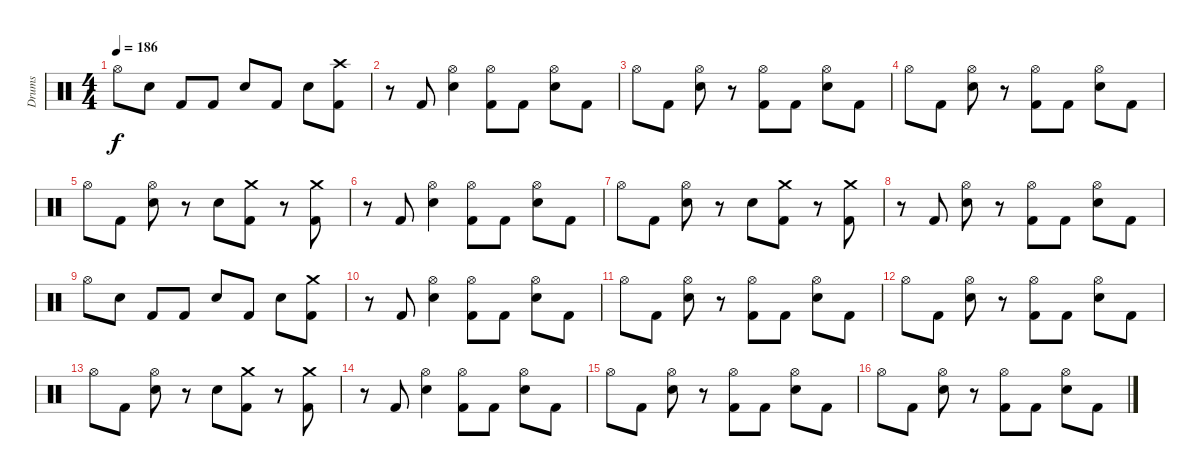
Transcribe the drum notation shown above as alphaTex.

\track ("Drums" "Drums") {instrument percussion}
\staff
\articulation defaults
\ts (4 4)
\tempo 186
\clef neutral
\ks c "Hi-Hat (open)".8{dy f} "Electric Snare (hit)".8 "Kick (hit) 2".8 "Kick (hit) 2".8 "Electric Snare (hit)".8 "Kick (hit) 2".8 "Electric Snare (hit)".8
("Crash high (hit)" "Kick (hit) 2").8 |
r.8 "Kick (hit) 2".8 ("Hi-Hat (open)" "Electric Snare (hit)").4 ("Hi-Hat (open)" "Kick (hit) 2").8 "Kick (hit) 2".8 ("Hi-Hat (open)" "Electric Snare (hit)").8 "Kick (hit) 2".8 |
"Hi-Hat (open)".8 "Kick (hit) 2".8 ("Hi-Hat (open)" "Electric Snare (hit)").8 r.8 ("Hi-Hat (open)" "Kick (hit) 2").8 "Kick (hit) 2".8 ("Hi-Hat (open)" "Electric Snare (hit)").8 "Kick (hit) 2".8 |
"Hi-Hat (open)".8 "Kick (hit) 2".8 ("Hi-Hat (open)" "Electric Snare (hit)").8 r.8 ("Hi-Hat (open)" "Kick (hit) 2").8 "Kick (hit) 2".8 ("Hi-Hat (open)" "Electric Snare (hit)").8 "Kick (hit) 2".8 |
"Hi-Hat (open)".8 "Kick (hit) 2".8 ("Hi-Hat (open)" "Electric Snare (hit)").8 r.8 "Electric Snare (hit)".8 ("Crash medium (hit)" "Kick (hit) 2").8 r.8 ("Crash medium (hit)" "Kick (hit) 2").8 |
r.8 "Kick (hit) 2".8 ("Hi-Hat (open)" "Electric Snare (hit)").4 ("Hi-Hat (open)" "Kick (hit) 2").8 "Kick (hit) 2".8 ("Hi-Hat (open)" "Electric Snare (hit)").8 "Kick (hit) 2".8 |
"Hi-Hat (open)".8 "Kick (hit) 2".8 ("Hi-Hat (open)" "Electric Snare (hit)").8 r.8 "Electric Snare (hit)".8 ("Crash medium (hit)" "Kick (hit) 2").8 r.8 ("Crash medium (hit)" "Kick (hit) 2").8 |
r.8 "Kick (hit) 2".8 ("Hi-Hat (open)" "Electric Snare (hit)").8 r.8 ("Hi-Hat (open)" "Kick (hit) 2").8 "Kick (hit) 2".8 ("Hi-Hat (open)" "Electric Snare (hit)").8 "Kick (hit) 2".8 |
"Hi-Hat (open)".8 "Electric Snare (hit)".8 "Kick (hit) 2".8 "Kick (hit) 2".8 "Electric Snare (hit)".8 "Kick (hit) 2".8 "Electric Snare (hit)".8 ("Crash medium (hit)" "Kick (hit) 2").8 |
r.8 "Kick (hit) 2".8 ("Hi-Hat (open)" "Electric Snare (hit)").4 ("Hi-Hat (open)" "Kick (hit) 2").8 "Kick (hit) 2".8 ("Hi-Hat (open)" "Electric Snare (hit)").8 "Kick (hit) 2".8 |
"Hi-Hat (open)".8 "Kick (hit) 2".8 ("Hi-Hat (open)" "Electric Snare (hit)").8 r.8 ("Hi-Hat (open)" "Kick (hit) 2").8 "Kick (hit) 2".8 ("Hi-Hat (open)" "Electric Snare (hit)").8 "Kick (hit) 2".8 |
"Hi-Hat (open)".8 "Kick (hit) 2".8 ("Hi-Hat (open)" "Electric Snare (hit)").8 r.8 ("Hi-Hat (open)" "Kick (hit) 2").8 "Kick (hit) 2".8 ("Hi-Hat (open)" "Electric Snare (hit)").8 "Kick (hit) 2".8 |
"Hi-Hat (open)".8 "Kick (hit) 2".8 ("Hi-Hat (open)" "Electric Snare (hit)").8 r.8 "Electric Snare (hit)".8 ("Crash medium (hit)" "Kick (hit) 2").8 r.8 ("Crash medium (hit)" "Kick (hit) 2").8 |
r.8 "Kick (hit) 2".8 ("Hi-Hat (open)" "Electric Snare (hit)").4 ("Hi-Hat (open)" "Kick (hit) 2").8 "Kick (hit) 2".8 ("Hi-Hat (open)" "Electric Snare (hit)").8 "Kick (hit) 2".8 |
"Hi-Hat (open)".8 "Kick (hit) 2".8 ("Hi-Hat (open)" "Electric Snare (hit)").8 r.8 ("Hi-Hat (open)" "Kick (hit) 2").8 "Kick (hit) 2".8 ("Hi-Hat (open)" "Electric Snare (hit)").8 "Kick (hit) 2".8 |
"Hi-Hat (open)".8 "Kick (hit) 2".8 ("Hi-Hat (open)" "Electric Snare (hit)").8 r.8 ("Hi-Hat (open)" "Kick (hit) 2").8 "Kick (hit) 2".8 ("Hi-Hat (open)" "Electric Snare (hit)").8 "Kick (hit) 2".8
